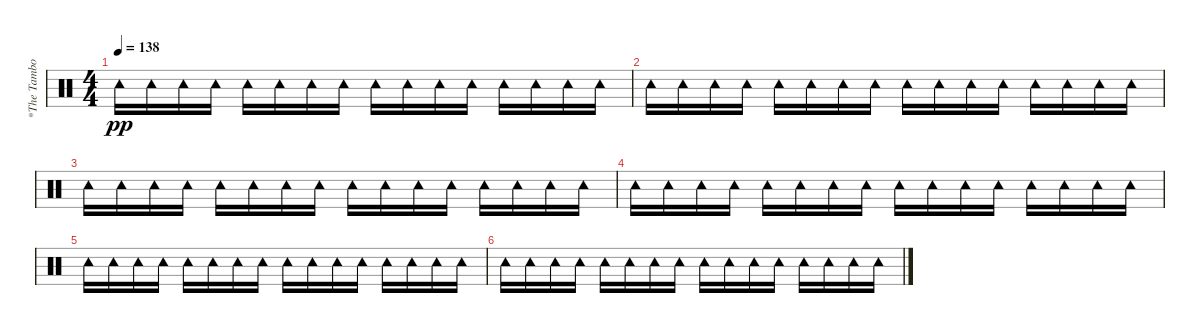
\track ("*The Tambourine" "*The Tambo") {instrument percussion}
\staff {score}
\articulation defaults
\ts (4 4)
\tempo 138
\clef neutral
\ks c "Tambourine (hit)".16{dy pp} "Tambourine (hit)".16 "Tambourine (hit)".16 "Tambourine (hit)".16 "Tambourine (hit)".16 "Tambourine (hit)".16 "Tambourine (hit)".16 "Tambourine (hit)".16 "Tambourine (hit)".16 "Tambourine (hit)".16 "Tambourine (hit)".16 "Tambourine (hit)".16 "Tambourine (hit)".16 "Tambourine (hit)".16 "Tambourine (hit)".16 "Tambourine (hit)".16
|
"Tambourine (hit)".16 "Tambourine (hit)".16 "Tambourine (hit)".16 "Tambourine (hit)".16 "Tambourine (hit)".16 "Tambourine (hit)".16 "Tambourine (hit)".16 "Tambourine (hit)".16 "Tambourine (hit)".16 "Tambourine (hit)".16 "Tambourine (hit)".16 "Tambourine (hit)".16 "Tambourine (hit)".16 "Tambourine (hit)".16 "Tambourine (hit)".16 "Tambourine (hit)".16 |
"Tambourine (hit)".16 "Tambourine (hit)".16 "Tambourine (hit)".16 "Tambourine (hit)".16 "Tambourine (hit)".16 "Tambourine (hit)".16 "Tambourine (hit)".16 "Tambourine (hit)".16 "Tambourine (hit)".16 "Tambourine (hit)".16 "Tambourine (hit)".16 "Tambourine (hit)".16 "Tambourine (hit)".16 "Tambourine (hit)".16 "Tambourine (hit)".16 "Tambourine (hit)".16 |
"Tambourine (hit)".16 "Tambourine (hit)".16 "Tambourine (hit)".16 "Tambourine (hit)".16 "Tambourine (hit)".16 "Tambourine (hit)".16 "Tambourine (hit)".16 "Tambourine (hit)".16 "Tambourine (hit)".16 "Tambourine (hit)".16 "Tambourine (hit)".16 "Tambourine (hit)".16 "Tambourine (hit)".16 "Tambourine (hit)".16 "Tambourine (hit)".16 "Tambourine (hit)".16 |
"Tambourine (hit)".16 "Tambourine (hit)".16 "Tambourine (hit)".16 "Tambourine (hit)".16 "Tambourine (hit)".16 "Tambourine (hit)".16 "Tambourine (hit)".16 "Tambourine (hit)".16 "Tambourine (hit)".16 "Tambourine (hit)".16 "Tambourine (hit)".16 "Tambourine (hit)".16 "Tambourine (hit)".16 "Tambourine (hit)".16 "Tambourine (hit)".16 "Tambourine (hit)".16 |
"Tambourine (hit)".16 "Tambourine (hit)".16 "Tambourine (hit)".16 "Tambourine (hit)".16 "Tambourine (hit)".16 "Tambourine (hit)".16 "Tambourine (hit)".16 "Tambourine (hit)".16 "Tambourine (hit)".16 "Tambourine (hit)".16 "Tambourine (hit)".16 "Tambourine (hit)".16 "Tambourine (hit)".16 "Tambourine (hit)".16 "Tambourine (hit)".16 "Tambourine (hit)".16
